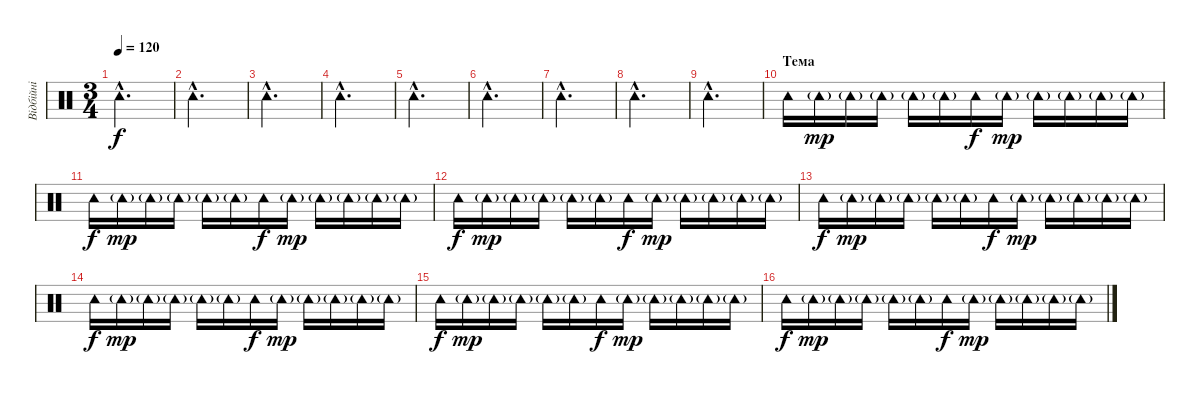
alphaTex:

\track ("Вiдбiйнi" "Вiдбiйнi") {instrument percussion}
\staff {score}
\articulation defaults
\ts (3 4)
\tempo 120
\clef neutral
\ks c "Tambourine (hit)"{hac}.2{d dy f}
|
"Tambourine (hit)"{hac}.2{d} |
"Tambourine (hit)"{hac}.2{d} |
"Tambourine (hit)"{hac}.2{d} |
"Tambourine (hit)"{hac}.2{d} |
"Tambourine (hit)"{hac}.2{d} |
"Tambourine (hit)"{hac}.2{d} |
"Tambourine (hit)"{hac}.2{d} |
"Tambourine (hit)"{hac}.2{d} |
\section ("" "Тема ")
"Tambourine (hit)".16 "Tambourine (hit)"{g}.16{dy mp} "Tambourine (hit)"{g}.16 "Tambourine (hit)"{g}.16 "Tambourine (hit)"{g}.16 "Tambourine (hit)"{g}.16 "Tambourine (hit)".16{dy f} "Tambourine (hit)"{g}.16{dy mp} "Tambourine (hit)"{g}.16 "Tambourine (hit)"{g}.16 "Tambourine (hit)"{g}.16 "Tambourine (hit)"{g}.16 |
"Tambourine (hit)".16{dy f} "Tambourine (hit)"{g}.16{dy mp} "Tambourine (hit)"{g}.16 "Tambourine (hit)"{g}.16 "Tambourine (hit)"{g}.16 "Tambourine (hit)"{g}.16 "Tambourine (hit)".16{dy f} "Tambourine (hit)"{g}.16{dy mp} "Tambourine (hit)"{g}.16 "Tambourine (hit)"{g}.16 "Tambourine (hit)"{g}.16 "Tambourine (hit)"{g}.16 |
"Tambourine (hit)".16{dy f} "Tambourine (hit)"{g}.16{dy mp} "Tambourine (hit)"{g}.16 "Tambourine (hit)"{g}.16 "Tambourine (hit)"{g}.16 "Tambourine (hit)"{g}.16 "Tambourine (hit)".16{dy f} "Tambourine (hit)"{g}.16{dy mp} "Tambourine (hit)"{g}.16 "Tambourine (hit)"{g}.16 "Tambourine (hit)"{g}.16 "Tambourine (hit)"{g}.16 |
"Tambourine (hit)".16{dy f} "Tambourine (hit)"{g}.16{dy mp} "Tambourine (hit)"{g}.16 "Tambourine (hit)"{g}.16 "Tambourine (hit)"{g}.16 "Tambourine (hit)"{g}.16 "Tambourine (hit)".16{dy f} "Tambourine (hit)"{g}.16{dy mp} "Tambourine (hit)"{g}.16 "Tambourine (hit)"{g}.16 "Tambourine (hit)"{g}.16 "Tambourine (hit)"{g}.16 |
"Tambourine (hit)".16{dy f} "Tambourine (hit)"{g}.16{dy mp} "Tambourine (hit)"{g}.16 "Tambourine (hit)"{g}.16 "Tambourine (hit)"{g}.16 "Tambourine (hit)"{g}.16 "Tambourine (hit)".16{dy f} "Tambourine (hit)"{g}.16{dy mp} "Tambourine (hit)"{g}.16 "Tambourine (hit)"{g}.16 "Tambourine (hit)"{g}.16 "Tambourine (hit)"{g}.16 |
"Tambourine (hit)".16{dy f} "Tambourine (hit)"{g}.16{dy mp} "Tambourine (hit)"{g}.16 "Tambourine (hit)"{g}.16 "Tambourine (hit)"{g}.16 "Tambourine (hit)"{g}.16 "Tambourine (hit)".16{dy f} "Tambourine (hit)"{g}.16{dy mp} "Tambourine (hit)"{g}.16 "Tambourine (hit)"{g}.16 "Tambourine (hit)"{g}.16 "Tambourine (hit)"{g}.16 |
"Tambourine (hit)".16{dy f} "Tambourine (hit)"{g}.16{dy mp} "Tambourine (hit)"{g}.16 "Tambourine (hit)"{g}.16 "Tambourine (hit)"{g}.16 "Tambourine (hit)"{g}.16 "Tambourine (hit)".16{dy f} "Tambourine (hit)"{g}.16{dy mp} "Tambourine (hit)"{g}.16 "Tambourine (hit)"{g}.16 "Tambourine (hit)"{g}.16 "Tambourine (hit)"{g}.16
